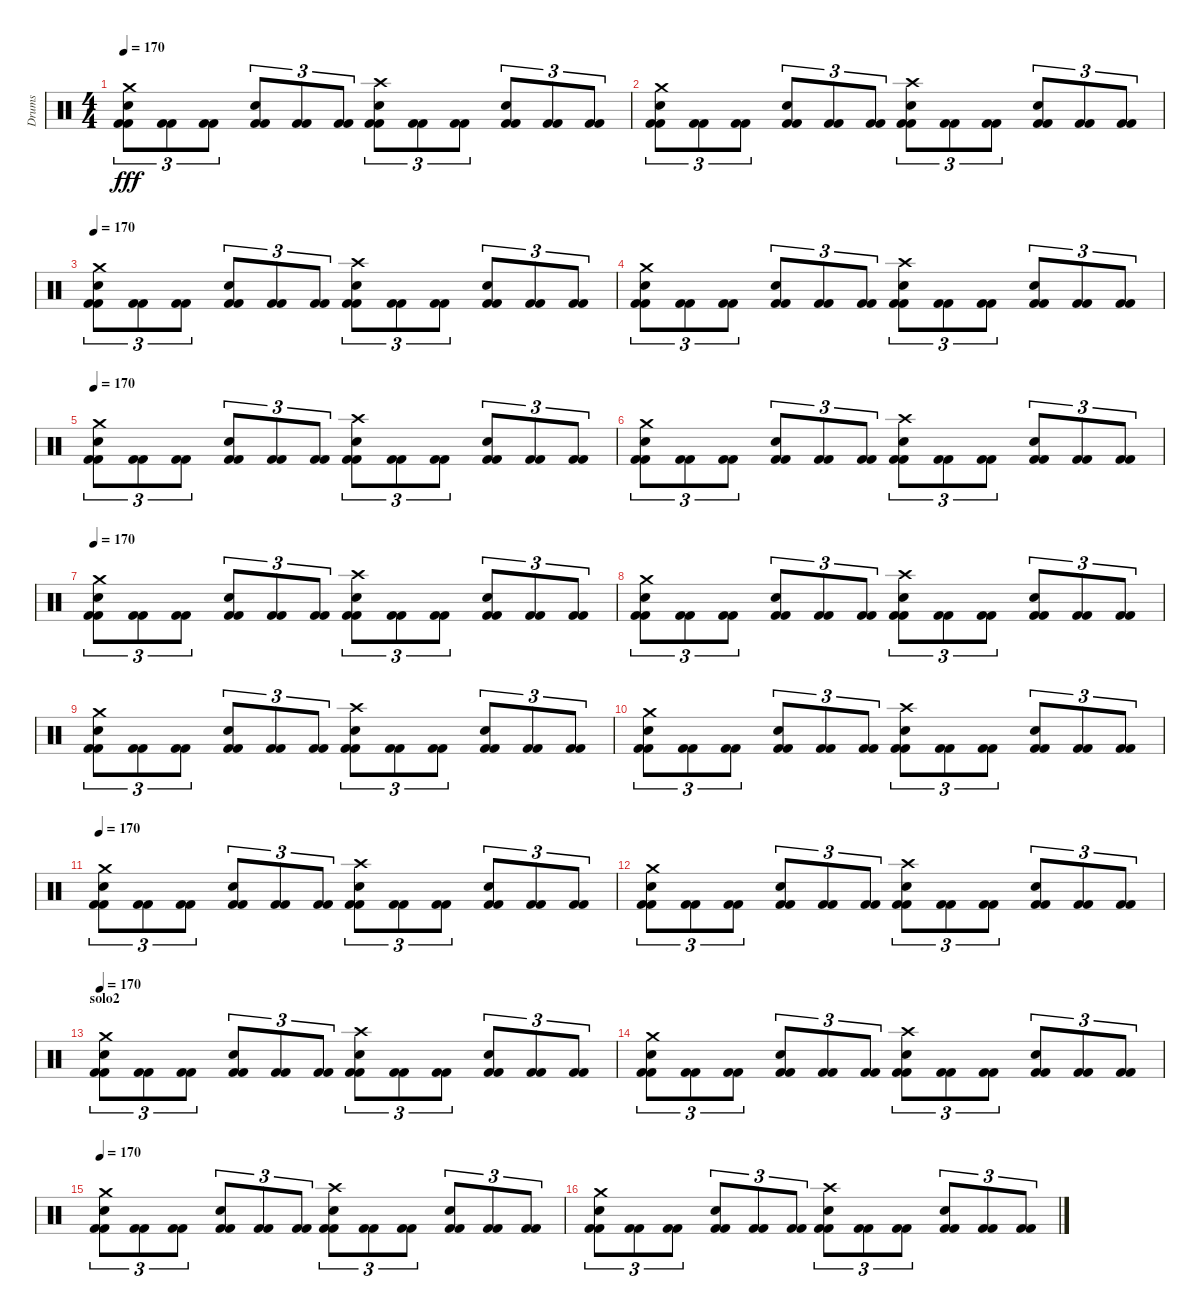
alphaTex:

\track ("Drums" "Drums") {instrument percussion}
\staff {score}
\articulation defaults
\ts (4 4)
\tempo 170
\clef neutral
\ks c
("Crash medium (hit)" "Electric Snare (hit)" "Kick (hit) 2" "Kick (hit) 2").8{tu (3 2) dy fff} ("Kick (hit) 2" "Kick (hit) 2").8{tu (3 2)} ("Kick (hit) 2" "Kick (hit) 2").8{tu (3 2)} ("Electric Snare (hit)" "Kick (hit) 2" "Kick (hit) 2").8{tu (3 2)} ("Kick (hit) 2" "Kick (hit) 2").8{tu (3 2)} ("Kick (hit) 2" "Kick (hit) 2").8{tu (3 2)} ("Crash high (hit)" "Electric Snare (hit)" "Kick (hit) 2" "Kick (hit) 2").8{tu (3 2)} ("Kick (hit) 2" "Kick (hit) 2").8{tu (3 2)} ("Kick (hit) 2" "Kick (hit) 2").8{tu (3 2)} ("Electric Snare (hit)" "Kick (hit) 2" "Kick (hit) 2").8{tu (3 2)} ("Kick (hit) 2" "Kick (hit) 2").8{tu (3 2)} ("Kick (hit) 2" "Kick (hit) 2").8{tu (3 2)} |
("Crash medium (hit)" "Electric Snare (hit)" "Kick (hit) 2" "Kick (hit) 2").8{tu (3 2)} ("Kick (hit) 2" "Kick (hit) 2").8{tu (3 2)} ("Kick (hit) 2" "Kick (hit) 2").8{tu (3 2)} ("Electric Snare (hit)" "Kick (hit) 2" "Kick (hit) 2").8{tu (3 2)} ("Kick (hit) 2" "Kick (hit) 2").8{tu (3 2)} ("Kick (hit) 2" "Kick (hit) 2").8{tu (3 2)} ("Crash high (hit)" "Electric Snare (hit)" "Kick (hit) 2" "Kick (hit) 2").8{tu (3 2)} ("Kick (hit) 2" "Kick (hit) 2").8{tu (3 2)} ("Kick (hit) 2" "Kick (hit) 2").8{tu (3 2)} ("Electric Snare (hit)" "Kick (hit) 2" "Kick (hit) 2").8{tu (3 2)} ("Kick (hit) 2" "Kick (hit) 2").8{tu (3 2)} ("Kick (hit) 2" "Kick (hit) 2").8{tu (3 2)} |
\tempo 170
("Crash medium (hit)" "Electric Snare (hit)" "Kick (hit) 2" "Kick (hit) 2").8{tu (3 2)} ("Kick (hit) 2" "Kick (hit) 2").8{tu (3 2)} ("Kick (hit) 2" "Kick (hit) 2").8{tu (3 2)} ("Electric Snare (hit)" "Kick (hit) 2" "Kick (hit) 2").8{tu (3 2)} ("Kick (hit) 2" "Kick (hit) 2").8{tu (3 2)} ("Kick (hit) 2" "Kick (hit) 2").8{tu (3 2)} ("Crash high (hit)" "Electric Snare (hit)" "Kick (hit) 2" "Kick (hit) 2").8{tu (3 2)} ("Kick (hit) 2" "Kick (hit) 2").8{tu (3 2)} ("Kick (hit) 2" "Kick (hit) 2").8{tu (3 2)} ("Electric Snare (hit)" "Kick (hit) 2" "Kick (hit) 2").8{tu (3 2)} ("Kick (hit) 2" "Kick (hit) 2").8{tu (3 2)} ("Kick (hit) 2" "Kick (hit) 2").8{tu (3 2)} |
("Crash medium (hit)" "Electric Snare (hit)" "Kick (hit) 2" "Kick (hit) 2").8{tu (3 2)} ("Kick (hit) 2" "Kick (hit) 2").8{tu (3 2)} ("Kick (hit) 2" "Kick (hit) 2").8{tu (3 2)} ("Electric Snare (hit)" "Kick (hit) 2" "Kick (hit) 2").8{tu (3 2)} ("Kick (hit) 2" "Kick (hit) 2").8{tu (3 2)} ("Kick (hit) 2" "Kick (hit) 2").8{tu (3 2)} ("Crash high (hit)" "Electric Snare (hit)" "Kick (hit) 2" "Kick (hit) 2").8{tu (3 2)} ("Kick (hit) 2" "Kick (hit) 2").8{tu (3 2)} ("Kick (hit) 2" "Kick (hit) 2").8{tu (3 2)} ("Electric Snare (hit)" "Kick (hit) 2" "Kick (hit) 2").8{tu (3 2)} ("Kick (hit) 2" "Kick (hit) 2").8{tu (3 2)} ("Kick (hit) 2" "Kick (hit) 2").8{tu (3 2)} |
\tempo 170
("Crash medium (hit)" "Electric Snare (hit)" "Kick (hit) 2" "Kick (hit) 2").8{tu (3 2)} ("Kick (hit) 2" "Kick (hit) 2").8{tu (3 2)} ("Kick (hit) 2" "Kick (hit) 2").8{tu (3 2)} ("Electric Snare (hit)" "Kick (hit) 2" "Kick (hit) 2").8{tu (3 2)} ("Kick (hit) 2" "Kick (hit) 2").8{tu (3 2)} ("Kick (hit) 2" "Kick (hit) 2").8{tu (3 2)} ("Crash high (hit)" "Electric Snare (hit)" "Kick (hit) 2" "Kick (hit) 2").8{tu (3 2)} ("Kick (hit) 2" "Kick (hit) 2").8{tu (3 2)} ("Kick (hit) 2" "Kick (hit) 2").8{tu (3 2)} ("Electric Snare (hit)" "Kick (hit) 2" "Kick (hit) 2").8{tu (3 2)} ("Kick (hit) 2" "Kick (hit) 2").8{tu (3 2)} ("Kick (hit) 2" "Kick (hit) 2").8{tu (3 2)} |
("Crash medium (hit)" "Electric Snare (hit)" "Kick (hit) 2" "Kick (hit) 2").8{tu (3 2)} ("Kick (hit) 2" "Kick (hit) 2").8{tu (3 2)} ("Kick (hit) 2" "Kick (hit) 2").8{tu (3 2)} ("Electric Snare (hit)" "Kick (hit) 2" "Kick (hit) 2").8{tu (3 2)} ("Kick (hit) 2" "Kick (hit) 2").8{tu (3 2)} ("Kick (hit) 2" "Kick (hit) 2").8{tu (3 2)} ("Crash high (hit)" "Electric Snare (hit)" "Kick (hit) 2" "Kick (hit) 2").8{tu (3 2)} ("Kick (hit) 2" "Kick (hit) 2").8{tu (3 2)} ("Kick (hit) 2" "Kick (hit) 2").8{tu (3 2)} ("Electric Snare (hit)" "Kick (hit) 2" "Kick (hit) 2").8{tu (3 2)} ("Kick (hit) 2" "Kick (hit) 2").8{tu (3 2)} ("Kick (hit) 2" "Kick (hit) 2").8{tu (3 2)} |
\tempo 170
("Crash medium (hit)" "Electric Snare (hit)" "Kick (hit) 2" "Kick (hit) 2").8{tu (3 2)} ("Kick (hit) 2" "Kick (hit) 2").8{tu (3 2)} ("Kick (hit) 2" "Kick (hit) 2").8{tu (3 2)} ("Electric Snare (hit)" "Kick (hit) 2" "Kick (hit) 2").8{tu (3 2)} ("Kick (hit) 2" "Kick (hit) 2").8{tu (3 2)} ("Kick (hit) 2" "Kick (hit) 2").8{tu (3 2)} ("Crash high (hit)" "Electric Snare (hit)" "Kick (hit) 2" "Kick (hit) 2").8{tu (3 2)} ("Kick (hit) 2" "Kick (hit) 2").8{tu (3 2)} ("Kick (hit) 2" "Kick (hit) 2").8{tu (3 2)} ("Electric Snare (hit)" "Kick (hit) 2" "Kick (hit) 2").8{tu (3 2)} ("Kick (hit) 2" "Kick (hit) 2").8{tu (3 2)} ("Kick (hit) 2" "Kick (hit) 2").8{tu (3 2)} |
("Crash medium (hit)" "Electric Snare (hit)" "Kick (hit) 2" "Kick (hit) 2").8{tu (3 2)} ("Kick (hit) 2" "Kick (hit) 2").8{tu (3 2)} ("Kick (hit) 2" "Kick (hit) 2").8{tu (3 2)} ("Electric Snare (hit)" "Kick (hit) 2" "Kick (hit) 2").8{tu (3 2)} ("Kick (hit) 2" "Kick (hit) 2").8{tu (3 2)} ("Kick (hit) 2" "Kick (hit) 2").8{tu (3 2)} ("Crash high (hit)" "Electric Snare (hit)" "Kick (hit) 2" "Kick (hit) 2").8{tu (3 2)} ("Kick (hit) 2" "Kick (hit) 2").8{tu (3 2)} ("Kick (hit) 2" "Kick (hit) 2").8{tu (3 2)} ("Electric Snare (hit)" "Kick (hit) 2" "Kick (hit) 2").8{tu (3 2)} ("Kick (hit) 2" "Kick (hit) 2").8{tu (3 2)} ("Kick (hit) 2" "Kick (hit) 2").8{tu (3 2)} |
("Crash medium (hit)" "Electric Snare (hit)" "Kick (hit) 2" "Kick (hit) 2").8{tu (3 2)} ("Kick (hit) 2" "Kick (hit) 2").8{tu (3 2)} ("Kick (hit) 2" "Kick (hit) 2").8{tu (3 2)} ("Electric Snare (hit)" "Kick (hit) 2" "Kick (hit) 2").8{tu (3 2)} ("Kick (hit) 2" "Kick (hit) 2").8{tu (3 2)} ("Kick (hit) 2" "Kick (hit) 2").8{tu (3 2)} ("Crash high (hit)" "Electric Snare (hit)" "Kick (hit) 2" "Kick (hit) 2").8{tu (3 2)} ("Kick (hit) 2" "Kick (hit) 2").8{tu (3 2)} ("Kick (hit) 2" "Kick (hit) 2").8{tu (3 2)} ("Electric Snare (hit)" "Kick (hit) 2" "Kick (hit) 2").8{tu (3 2)} ("Kick (hit) 2" "Kick (hit) 2").8{tu (3 2)} ("Kick (hit) 2" "Kick (hit) 2").8{tu (3 2)} |
("Crash medium (hit)" "Electric Snare (hit)" "Kick (hit) 2" "Kick (hit) 2").8{tu (3 2)} ("Kick (hit) 2" "Kick (hit) 2").8{tu (3 2)} ("Kick (hit) 2" "Kick (hit) 2").8{tu (3 2)} ("Electric Snare (hit)" "Kick (hit) 2" "Kick (hit) 2").8{tu (3 2)} ("Kick (hit) 2" "Kick (hit) 2").8{tu (3 2)} ("Kick (hit) 2" "Kick (hit) 2").8{tu (3 2)} ("Crash high (hit)" "Electric Snare (hit)" "Kick (hit) 2" "Kick (hit) 2").8{tu (3 2)} ("Kick (hit) 2" "Kick (hit) 2").8{tu (3 2)} ("Kick (hit) 2" "Kick (hit) 2").8{tu (3 2)} ("Electric Snare (hit)" "Kick (hit) 2" "Kick (hit) 2").8{tu (3 2)} ("Kick (hit) 2" "Kick (hit) 2").8{tu (3 2)} ("Kick (hit) 2" "Kick (hit) 2").8{tu (3 2)} |
\tempo 170
("Crash medium (hit)" "Electric Snare (hit)" "Kick (hit) 2" "Kick (hit) 2").8{tu (3 2)} ("Kick (hit) 2" "Kick (hit) 2").8{tu (3 2)} ("Kick (hit) 2" "Kick (hit) 2").8{tu (3 2)} ("Electric Snare (hit)" "Kick (hit) 2" "Kick (hit) 2").8{tu (3 2)} ("Kick (hit) 2" "Kick (hit) 2").8{tu (3 2)} ("Kick (hit) 2" "Kick (hit) 2").8{tu (3 2)} ("Crash high (hit)" "Electric Snare (hit)" "Kick (hit) 2" "Kick (hit) 2").8{tu (3 2)} ("Kick (hit) 2" "Kick (hit) 2").8{tu (3 2)} ("Kick (hit) 2" "Kick (hit) 2").8{tu (3 2)} ("Electric Snare (hit)" "Kick (hit) 2" "Kick (hit) 2").8{tu (3 2)} ("Kick (hit) 2" "Kick (hit) 2").8{tu (3 2)} ("Kick (hit) 2" "Kick (hit) 2").8{tu (3 2)} |
("Crash medium (hit)" "Electric Snare (hit)" "Kick (hit) 2" "Kick (hit) 2").8{tu (3 2)} ("Kick (hit) 2" "Kick (hit) 2").8{tu (3 2)} ("Kick (hit) 2" "Kick (hit) 2").8{tu (3 2)} ("Electric Snare (hit)" "Kick (hit) 2" "Kick (hit) 2").8{tu (3 2)} ("Kick (hit) 2" "Kick (hit) 2").8{tu (3 2)} ("Kick (hit) 2" "Kick (hit) 2").8{tu (3 2)} ("Crash high (hit)" "Electric Snare (hit)" "Kick (hit) 2" "Kick (hit) 2").8{tu (3 2)} ("Kick (hit) 2" "Kick (hit) 2").8{tu (3 2)} ("Kick (hit) 2" "Kick (hit) 2").8{tu (3 2)} ("Electric Snare (hit)" "Kick (hit) 2" "Kick (hit) 2").8{tu (3 2)} ("Kick (hit) 2" "Kick (hit) 2").8{tu (3 2)} ("Kick (hit) 2" "Kick (hit) 2").8{tu (3 2)} |
\section ("" "solo2")
\tempo 170
("Crash medium (hit)" "Electric Snare (hit)" "Kick (hit) 2" "Kick (hit) 2").8{tu (3 2)} ("Kick (hit) 2" "Kick (hit) 2").8{tu (3 2)} ("Kick (hit) 2" "Kick (hit) 2").8{tu (3 2)} ("Electric Snare (hit)" "Kick (hit) 2" "Kick (hit) 2").8{tu (3 2)} ("Kick (hit) 2" "Kick (hit) 2").8{tu (3 2)} ("Kick (hit) 2" "Kick (hit) 2").8{tu (3 2)} ("Crash high (hit)" "Electric Snare (hit)" "Kick (hit) 2" "Kick (hit) 2").8{tu (3 2)} ("Kick (hit) 2" "Kick (hit) 2").8{tu (3 2)} ("Kick (hit) 2" "Kick (hit) 2").8{tu (3 2)} ("Electric Snare (hit)" "Kick (hit) 2" "Kick (hit) 2").8{tu (3 2)} ("Kick (hit) 2" "Kick (hit) 2").8{tu (3 2)} ("Kick (hit) 2" "Kick (hit) 2").8{tu (3 2)} |
("Crash medium (hit)" "Electric Snare (hit)" "Kick (hit) 2" "Kick (hit) 2").8{tu (3 2)} ("Kick (hit) 2" "Kick (hit) 2").8{tu (3 2)} ("Kick (hit) 2" "Kick (hit) 2").8{tu (3 2)} ("Electric Snare (hit)" "Kick (hit) 2" "Kick (hit) 2").8{tu (3 2)} ("Kick (hit) 2" "Kick (hit) 2").8{tu (3 2)} ("Kick (hit) 2" "Kick (hit) 2").8{tu (3 2)} ("Crash high (hit)" "Electric Snare (hit)" "Kick (hit) 2" "Kick (hit) 2").8{tu (3 2)} ("Kick (hit) 2" "Kick (hit) 2").8{tu (3 2)} ("Kick (hit) 2" "Kick (hit) 2").8{tu (3 2)} ("Electric Snare (hit)" "Kick (hit) 2" "Kick (hit) 2").8{tu (3 2)} ("Kick (hit) 2" "Kick (hit) 2").8{tu (3 2)} ("Kick (hit) 2" "Kick (hit) 2").8{tu (3 2)} |
\tempo 170
("Crash medium (hit)" "Electric Snare (hit)" "Kick (hit) 2" "Kick (hit) 2").8{tu (3 2)} ("Kick (hit) 2" "Kick (hit) 2").8{tu (3 2)} ("Kick (hit) 2" "Kick (hit) 2").8{tu (3 2)} ("Electric Snare (hit)" "Kick (hit) 2" "Kick (hit) 2").8{tu (3 2)} ("Kick (hit) 2" "Kick (hit) 2").8{tu (3 2)} ("Kick (hit) 2" "Kick (hit) 2").8{tu (3 2)} ("Crash high (hit)" "Electric Snare (hit)" "Kick (hit) 2" "Kick (hit) 2").8{tu (3 2)} ("Kick (hit) 2" "Kick (hit) 2").8{tu (3 2)} ("Kick (hit) 2" "Kick (hit) 2").8{tu (3 2)} ("Electric Snare (hit)" "Kick (hit) 2" "Kick (hit) 2").8{tu (3 2)} ("Kick (hit) 2" "Kick (hit) 2").8{tu (3 2)} ("Kick (hit) 2" "Kick (hit) 2").8{tu (3 2)} |
("Crash medium (hit)" "Electric Snare (hit)" "Kick (hit) 2" "Kick (hit) 2").8{tu (3 2)} ("Kick (hit) 2" "Kick (hit) 2").8{tu (3 2)} ("Kick (hit) 2" "Kick (hit) 2").8{tu (3 2)} ("Electric Snare (hit)" "Kick (hit) 2" "Kick (hit) 2").8{tu (3 2)} ("Kick (hit) 2" "Kick (hit) 2").8{tu (3 2)} ("Kick (hit) 2" "Kick (hit) 2").8{tu (3 2)} ("Crash high (hit)" "Electric Snare (hit)" "Kick (hit) 2" "Kick (hit) 2").8{tu (3 2)} ("Kick (hit) 2" "Kick (hit) 2").8{tu (3 2)} ("Kick (hit) 2" "Kick (hit) 2").8{tu (3 2)} ("Electric Snare (hit)" "Kick (hit) 2" "Kick (hit) 2").8{tu (3 2)} ("Kick (hit) 2" "Kick (hit) 2").8{tu (3 2)} ("Kick (hit) 2" "Kick (hit) 2").8{tu (3 2)}
